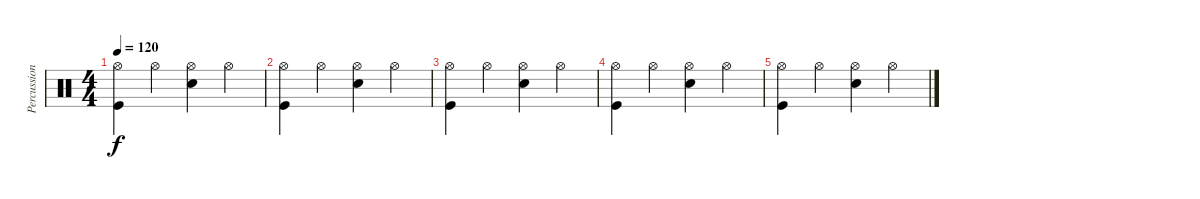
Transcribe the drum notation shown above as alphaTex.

\track ("Percussion" "Percussion") {instrument percussion}
\staff {score}
\articulation defaults
\ts (4 4)
\tempo 120
\clef neutral
\ks c
("Hi-Hat (open)" "Kick (hit)").4{dy f} "Hi-Hat (open)".4 ("Hi-Hat (open)" "Snare (hit) 2").4 "Hi-Hat (open)".4 |
("Hi-Hat (open)" "Kick (hit)").4 "Hi-Hat (open)".4 ("Hi-Hat (open)" "Snare (hit) 2").4 "Hi-Hat (open)".4 |
("Hi-Hat (open)" "Kick (hit)").4 "Hi-Hat (open)".4 ("Hi-Hat (open)" "Snare (hit) 2").4 "Hi-Hat (open)".4 |
("Hi-Hat (open)" "Kick (hit)").4 "Hi-Hat (open)".4 ("Hi-Hat (open)" "Snare (hit) 2").4 "Hi-Hat (open)".4 |
("Hi-Hat (open)" "Kick (hit)").4 "Hi-Hat (open)".4 ("Hi-Hat (open)" "Snare (hit) 2").4 "Hi-Hat (open)".4
